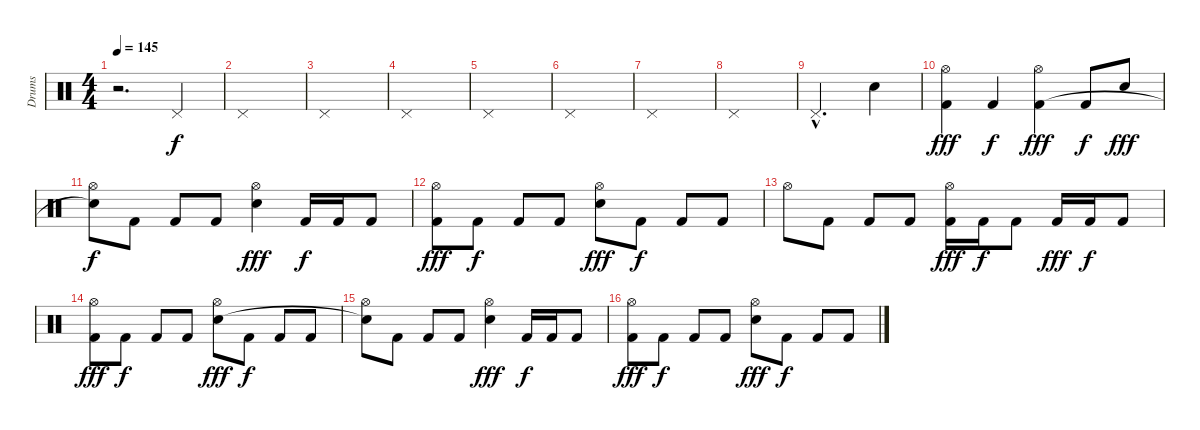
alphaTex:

\track ("Drums" "Drums") {instrument percussion}
\staff {score}
\articulation defaults
\ts (4 4)
\tempo 145
\clef neutral
\ks c
r.2{d dy f} "Pedal Hi-Hat (hit)".4 |
"Pedal Hi-Hat (hit)".1 |
"Pedal Hi-Hat (hit)".1 |
"Pedal Hi-Hat (hit)".1 |
"Pedal Hi-Hat (hit)".1 |
"Pedal Hi-Hat (hit)".1 |
"Pedal Hi-Hat (hit)".1 |
"Pedal Hi-Hat (hit)".1 |
"Pedal Hi-Hat (hit)"{hac}.2{d} "Snare (hit) 2".4 |
("Hi-Hat (open)" "Kick (hit) 2").4{dy fff} "Kick (hit) 2".4{dy f} ("Hi-Hat (open)" "Kick (hit) 2").4{dy fff} "Kick (hit) 2".8{dy f} "Snare (hit) 2".8{dy fff} |
("Hi-Hat (open)" "Snare (hit)"{t}).8{dy f} "Kick (hit) 2".8 "Kick (hit) 2".8 "Kick (hit) 2".8 ("Hi-Hat (open)" "Snare (hit) 2").4{dy fff} "Kick (hit) 2".16{dy f} "Kick (hit) 2".16 "Kick (hit) 2".8 |
("Hi-Hat (open)" "Kick (hit) 2").8{dy fff} "Kick (hit) 2".8{dy f} "Kick (hit) 2".8 "Kick (hit) 2".8 ("Hi-Hat (open)" "Snare (hit) 2").8{dy fff} "Kick (hit) 2".8{dy f} "Kick (hit) 2".8 "Kick (hit) 2".8 |
"Hi-Hat (open)".8 "Kick (hit) 2".8 "Kick (hit) 2".8 "Kick (hit) 2".8 ("Hi-Hat (open)" "Kick (hit) 2").16{dy fff} "Kick (hit) 2".16{dy f} "Kick (hit) 2".8 "Kick (hit) 2".16{dy fff} "Kick (hit) 2".16{dy f} "Kick (hit) 2".8 |
("Hi-Hat (open)" "Kick (hit) 2").8{dy fff} "Kick (hit) 2".8{dy f} "Kick (hit) 2".8 "Kick (hit) 2".8 ("Hi-Hat (open)" "Snare (hit) 2").8{dy fff} "Kick (hit) 2".8{dy f} "Kick (hit) 2".8 "Kick (hit) 2".8 |
("Hi-Hat (open)" "Snare (hit)"{t}).8 "Kick (hit) 2".8 "Kick (hit) 2".8 "Kick (hit) 2".8 ("Hi-Hat (open)" "Snare (hit) 2").4{dy fff} "Kick (hit) 2".16{dy f} "Kick (hit) 2".16 "Kick (hit) 2".8 |
("Hi-Hat (open)" "Kick (hit) 2").8{dy fff} "Kick (hit) 2".8{dy f} "Kick (hit) 2".8 "Kick (hit) 2".8 ("Hi-Hat (open)" "Snare (hit) 2").8{dy fff} "Kick (hit) 2".8{dy f} "Kick (hit) 2".8 "Kick (hit) 2".8
